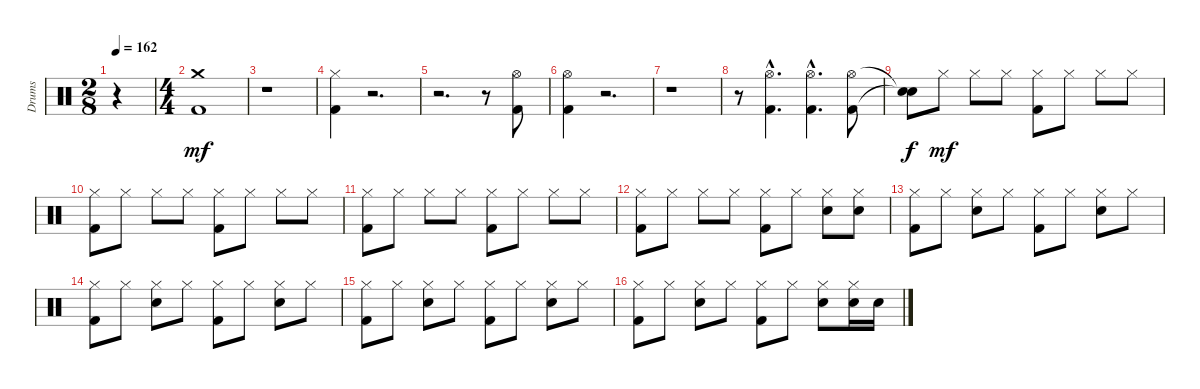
\track ("Drums" "Drums") {instrument percussion}
\staff {score}
\articulation defaults
\ts (2 8)
\tempo 162
\clef neutral
\ks c
r.4{dy mf} |
\ts (4 4)
("Crash medium (hit)" "Kick (hit) 2").1 |
r.1 |
("Hi-Hat (closed)" "Kick (hit) 2").4 r.2{d} |
r.2{d} r.8 ("Hi-Hat (open)" "Kick (hit) 2").8 |
("Hi-Hat (open)" "Kick (hit) 2").4 r.2{d} |
r.1 |
r.8 ("Hi-Hat (open)"{hac} "Kick (hit) 2").4{d} ("Hi-Hat (open)"{hac} "Kick (hit) 2").4{d} ("Hi-Hat (open)" "Kick (hit) 2").8 |
("Snare (hit)"{t} "Snare (hit)"{t}).8{dy f} "Hi-Hat (closed)".8{dy mf} "Hi-Hat (closed)".8 "Hi-Hat (closed)".8 ("Hi-Hat (closed)" "Kick (hit) 2").8 "Hi-Hat (closed)".8 "Hi-Hat (closed)".8 "Hi-Hat (closed)".8 |
("Hi-Hat (closed)" "Kick (hit) 2").8 "Hi-Hat (closed)".8 "Hi-Hat (closed)".8 "Hi-Hat (closed)".8 ("Hi-Hat (closed)" "Kick (hit) 2").8 "Hi-Hat (closed)".8 "Hi-Hat (closed)".8 "Hi-Hat (closed)".8 |
("Hi-Hat (closed)" "Kick (hit) 2").8 "Hi-Hat (closed)".8 "Hi-Hat (closed)".8 "Hi-Hat (closed)".8 ("Hi-Hat (closed)" "Kick (hit) 2").8 "Hi-Hat (closed)".8 "Hi-Hat (closed)".8 "Hi-Hat (closed)".8 |
("Hi-Hat (closed)" "Kick (hit) 2").8 "Hi-Hat (closed)".8 "Hi-Hat (closed)".8 "Hi-Hat (closed)".8 ("Hi-Hat (closed)" "Kick (hit) 2").8 "Hi-Hat (closed)".8 ("Hi-Hat (closed)" "Snare (hit) 2").8 ("Hi-Hat (closed)" "Snare (hit) 2").8 |
("Hi-Hat (closed)" "Kick (hit) 2").8 "Hi-Hat (closed)".8 ("Hi-Hat (closed)" "Snare (hit) 2").8 "Hi-Hat (closed)".8 ("Hi-Hat (closed)" "Kick (hit) 2").8 "Hi-Hat (closed)".8 ("Hi-Hat (closed)" "Snare (hit) 2").8 "Hi-Hat (closed)".8 |
("Hi-Hat (closed)" "Kick (hit) 2").8 "Hi-Hat (closed)".8 ("Hi-Hat (closed)" "Snare (hit) 2").8 "Hi-Hat (closed)".8 ("Hi-Hat (closed)" "Kick (hit) 2").8 "Hi-Hat (closed)".8 ("Hi-Hat (closed)" "Snare (hit) 2").8 "Hi-Hat (closed)".8 |
("Hi-Hat (closed)" "Kick (hit) 2").8 "Hi-Hat (closed)".8 ("Hi-Hat (closed)" "Snare (hit) 2").8 "Hi-Hat (closed)".8 ("Hi-Hat (closed)" "Kick (hit) 2").8 "Hi-Hat (closed)".8 ("Hi-Hat (closed)" "Snare (hit) 2").8 "Hi-Hat (closed)".8 |
("Hi-Hat (closed)" "Kick (hit) 2").8 "Hi-Hat (closed)".8 ("Hi-Hat (closed)" "Snare (hit) 2").8 "Hi-Hat (closed)".8 ("Hi-Hat (closed)" "Kick (hit) 2").8 "Hi-Hat (closed)".8 ("Hi-Hat (closed)" "Snare (hit) 2").8 ("Hi-Hat (closed)" "Snare (hit) 2").16 "Snare (hit) 2".16
